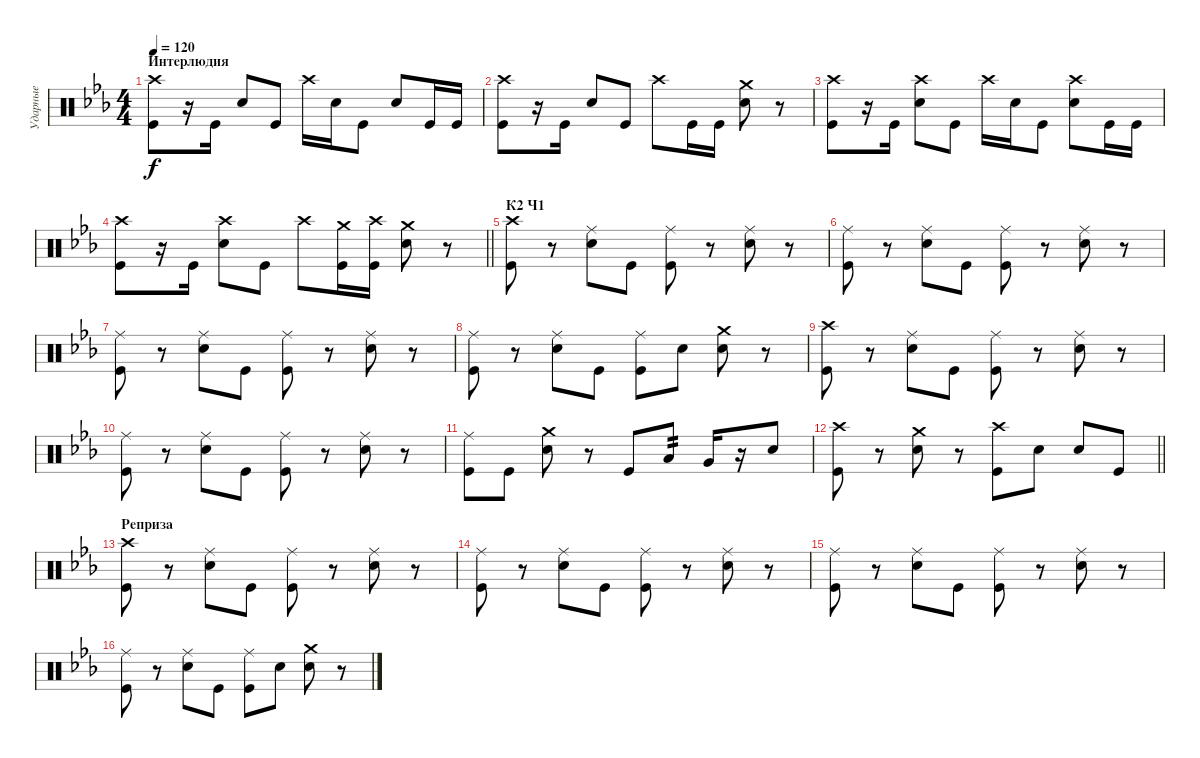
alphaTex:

\track ("Ударные" "Ударные") {instrument percussion}
\staff {score}
\articulation defaults
\ts (4 4)
\section ("" "Интерлюдия")
\tempo 120
\clef neutral
\ks cminor
("Crash high (hit)" "Kick (hit)").8{dy f} r.16 "Kick (hit)".16 "Snare (hit) 2".8 "Kick (hit)".8 "Crash high (hit)".16 "Snare (hit) 2".16 "Kick (hit)".8 "Snare (hit) 2".8 "Kick (hit)".16 "Kick (hit)".16 |
("Crash high (hit)" "Kick (hit)").8 r.16 "Kick (hit)".16 "Snare (hit) 2".8 "Kick (hit)".8 "Crash high (hit)".8 "Kick (hit)".16 "Kick (hit)".16 ("Crash medium (hit)" "Snare (hit) 2").8 r.8 |
("Crash high (hit)" "Kick (hit)").8 r.16 "Kick (hit)".16 ("Crash high (hit)" "Snare (hit) 2").8 "Kick (hit)".8 "Crash high (hit)".16 "Snare (hit) 2".16 "Kick (hit)".8 ("Crash high (hit)" "Snare (hit) 2").8 "Kick (hit)".16 "Kick (hit)".16 |
\barLineRight lightlight
("Crash high (hit)" "Kick (hit)").8 r.16 "Kick (hit)".16 ("Crash high (hit)" "Snare (hit) 2").8 "Kick (hit)".8 "Crash high (hit)".8 ("Crash medium (hit)" "Kick (hit)").16 ("Crash high (hit)" "Kick (hit)").16 ("Crash medium (hit)" "Snare (hit) 2").8 r.8 |
\section ("" "К2 Ч1")
("Crash high (hit)" "Kick (hit)").8 r.8 ("Ride (middle)" "Snare (hit) 2").8 "Kick (hit)".8 ("Ride (middle)" "Kick (hit)").8 r.8 ("Ride (middle)" "Snare (hit) 2").8 r.8 |
("Ride (middle)" "Kick (hit)").8 r.8 ("Ride (middle)" "Snare (hit) 2").8 "Kick (hit)".8 ("Ride (middle)" "Kick (hit)").8 r.8 ("Ride (middle)" "Snare (hit) 2").8 r.8 |
("Ride (middle)" "Kick (hit)").8 r.8 ("Ride (middle)" "Snare (hit) 2").8 "Kick (hit)".8 ("Ride (middle)" "Kick (hit)").8 r.8 ("Ride (middle)" "Snare (hit) 2").8 r.8 |
("Ride (middle)" "Kick (hit)").8 r.8 ("Ride (middle)" "Snare (hit) 2").8 "Kick (hit)".8 ("Ride (middle)" "Kick (hit)").8 "Snare (hit) 2".8 ("Crash medium (hit)" "Snare (hit) 2").8 r.8 |
("Crash high (hit)" "Kick (hit)").8 r.8 ("Ride (middle)" "Snare (hit) 2").8 "Kick (hit)".8 ("Ride (middle)" "Kick (hit)").8 r.8 ("Ride (middle)" "Snare (hit) 2").8 r.8 |
("Ride (middle)" "Kick (hit)").8 r.8 ("Ride (middle)" "Snare (hit) 2").8 "Kick (hit)".8 ("Ride (middle)" "Kick (hit)").8 r.8 ("Ride (middle)" "Snare (hit) 2").8 r.8 |
("Ride (middle)" "Kick (hit)").8 "Kick (hit)".8 ("Crash medium (hit)" "Snare (hit) 2").8 r.8 "Kick (hit)".8 "Low Tom (hit)".8{tp 2} "Very Low Tom (hit)".16 r.16 "Snare (hit) 2".8 |
\barLineRight lightlight
("Crash high (hit)" "Kick (hit)").8 r.8 ("Crash medium (hit)" "Snare (hit) 2").8 r.8 ("Crash high (hit)" "Kick (hit)").8 "Snare (hit) 2".8 "Snare (hit) 2".8 "Kick (hit)".8 |
\section ("" "Реприза")
("Crash high (hit)" "Kick (hit)").8 r.8 ("Ride (middle)" "Snare (hit) 2").8 "Kick (hit)".8 ("Ride (middle)" "Kick (hit)").8 r.8 ("Ride (middle)" "Snare (hit) 2").8 r.8 |
("Ride (middle)" "Kick (hit)").8 r.8 ("Ride (middle)" "Snare (hit) 2").8 "Kick (hit)".8 ("Ride (middle)" "Kick (hit)").8 r.8 ("Ride (middle)" "Snare (hit) 2").8 r.8 |
("Ride (middle)" "Kick (hit)").8 r.8 ("Ride (middle)" "Snare (hit) 2").8 "Kick (hit)".8 ("Ride (middle)" "Kick (hit)").8 r.8 ("Ride (middle)" "Snare (hit) 2").8 r.8 |
("Ride (middle)" "Kick (hit)").8 r.8 ("Ride (middle)" "Snare (hit) 2").8 "Kick (hit)".8 ("Ride (middle)" "Kick (hit)").8 "Snare (hit) 2".8 ("Crash medium (hit)" "Snare (hit) 2").8 r.8
